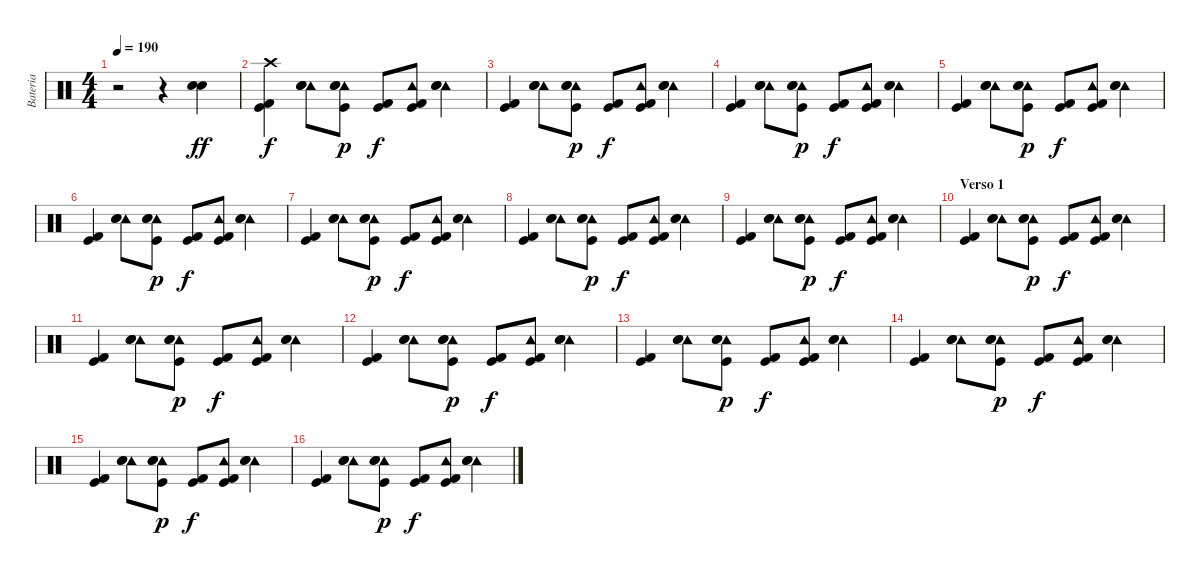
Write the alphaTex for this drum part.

\track ("Bateria" "Bateria") {instrument percussion}
\staff {score}
\articulation defaults
\ts (4 4)
\tempo 190
\clef neutral
\ks c
r.2{dy ff} r.4 ("Snare (hit) 2" "Electric Snare (hit)").4 |
("Crash high (hit)" "Kick (hit) 2" "Kick (hit)").4{dy f} ("Tambourine (hit)" "Snare (hit) 2" "Electric Snare (hit)").8 ("Tambourine (hit)" "Snare (hit) 2" "Electric Snare (hit)" "Kick (hit)").8{dy p} ("Kick (hit) 2" "Kick (hit)").8{dy f} ("Tambourine (hit)" "Kick (hit) 2" "Kick (hit)").8 ("Tambourine (hit)" "Snare (hit) 2" "Electric Snare (hit)").4 |
("Kick (hit) 2" "Kick (hit)").4 ("Tambourine (hit)" "Snare (hit) 2" "Electric Snare (hit)").8 ("Tambourine (hit)" "Snare (hit) 2" "Electric Snare (hit)" "Kick (hit)").8{dy p} ("Kick (hit) 2" "Kick (hit)").8{dy f} ("Tambourine (hit)" "Kick (hit) 2" "Kick (hit)").8 ("Tambourine (hit)" "Snare (hit) 2" "Electric Snare (hit)").4 |
("Kick (hit) 2" "Kick (hit)").4 ("Tambourine (hit)" "Snare (hit) 2" "Electric Snare (hit)").8 ("Tambourine (hit)" "Snare (hit) 2" "Electric Snare (hit)" "Kick (hit)").8{dy p} ("Kick (hit) 2" "Kick (hit)").8{dy f} ("Tambourine (hit)" "Kick (hit) 2" "Kick (hit)").8 ("Tambourine (hit)" "Snare (hit) 2" "Electric Snare (hit)").4 |
("Kick (hit) 2" "Kick (hit)").4 ("Tambourine (hit)" "Snare (hit) 2" "Electric Snare (hit)").8 ("Tambourine (hit)" "Snare (hit) 2" "Electric Snare (hit)" "Kick (hit)").8{dy p} ("Kick (hit) 2" "Kick (hit)").8{dy f} ("Tambourine (hit)" "Kick (hit) 2" "Kick (hit)").8 ("Tambourine (hit)" "Snare (hit) 2" "Electric Snare (hit)").4 |
("Kick (hit) 2" "Kick (hit)").4 ("Tambourine (hit)" "Snare (hit) 2" "Electric Snare (hit)").8 ("Tambourine (hit)" "Snare (hit) 2" "Electric Snare (hit)" "Kick (hit)").8{dy p} ("Kick (hit) 2" "Kick (hit)").8{dy f} ("Tambourine (hit)" "Kick (hit) 2" "Kick (hit)").8 ("Tambourine (hit)" "Snare (hit) 2" "Electric Snare (hit)").4 |
("Kick (hit) 2" "Kick (hit)").4 ("Tambourine (hit)" "Snare (hit) 2" "Electric Snare (hit)").8 ("Tambourine (hit)" "Snare (hit) 2" "Electric Snare (hit)" "Kick (hit)").8{dy p} ("Kick (hit) 2" "Kick (hit)").8{dy f} ("Tambourine (hit)" "Kick (hit) 2" "Kick (hit)").8 ("Tambourine (hit)" "Snare (hit) 2" "Electric Snare (hit)").4 |
("Kick (hit) 2" "Kick (hit)").4 ("Tambourine (hit)" "Snare (hit) 2" "Electric Snare (hit)").8 ("Tambourine (hit)" "Snare (hit) 2" "Electric Snare (hit)" "Kick (hit)").8{dy p} ("Kick (hit) 2" "Kick (hit)").8{dy f} ("Tambourine (hit)" "Kick (hit) 2" "Kick (hit)").8 ("Tambourine (hit)" "Snare (hit) 2" "Electric Snare (hit)").4 |
("Kick (hit) 2" "Kick (hit)").4 ("Tambourine (hit)" "Snare (hit) 2" "Electric Snare (hit)").8 ("Tambourine (hit)" "Snare (hit) 2" "Electric Snare (hit)" "Kick (hit)").8{dy p} ("Kick (hit) 2" "Kick (hit)").8{dy f} ("Tambourine (hit)" "Kick (hit) 2" "Kick (hit)").8 ("Tambourine (hit)" "Snare (hit) 2" "Electric Snare (hit)").4 |
\section ("" "Verso 1")
("Kick (hit) 2" "Kick (hit)").4 ("Tambourine (hit)" "Snare (hit) 2" "Electric Snare (hit)").8 ("Tambourine (hit)" "Snare (hit) 2" "Electric Snare (hit)" "Kick (hit)").8{dy p} ("Kick (hit) 2" "Kick (hit)").8{dy f} ("Tambourine (hit)" "Kick (hit) 2" "Kick (hit)").8 ("Tambourine (hit)" "Snare (hit) 2" "Electric Snare (hit)").4 |
("Kick (hit) 2" "Kick (hit)").4 ("Tambourine (hit)" "Snare (hit) 2" "Electric Snare (hit)").8 ("Tambourine (hit)" "Snare (hit) 2" "Electric Snare (hit)" "Kick (hit)").8{dy p} ("Kick (hit) 2" "Kick (hit)").8{dy f} ("Tambourine (hit)" "Kick (hit) 2" "Kick (hit)").8 ("Tambourine (hit)" "Snare (hit) 2" "Electric Snare (hit)").4 |
("Kick (hit) 2" "Kick (hit)").4 ("Tambourine (hit)" "Snare (hit) 2" "Electric Snare (hit)").8 ("Tambourine (hit)" "Snare (hit) 2" "Electric Snare (hit)" "Kick (hit)").8{dy p} ("Kick (hit) 2" "Kick (hit)").8{dy f} ("Tambourine (hit)" "Kick (hit) 2" "Kick (hit)").8 ("Tambourine (hit)" "Snare (hit) 2" "Electric Snare (hit)").4 |
("Kick (hit) 2" "Kick (hit)").4 ("Tambourine (hit)" "Snare (hit) 2" "Electric Snare (hit)").8 ("Tambourine (hit)" "Snare (hit) 2" "Electric Snare (hit)" "Kick (hit)").8{dy p} ("Kick (hit) 2" "Kick (hit)").8{dy f} ("Tambourine (hit)" "Kick (hit) 2" "Kick (hit)").8 ("Tambourine (hit)" "Snare (hit) 2" "Electric Snare (hit)").4 |
("Kick (hit) 2" "Kick (hit)").4 ("Tambourine (hit)" "Snare (hit) 2" "Electric Snare (hit)").8 ("Tambourine (hit)" "Snare (hit) 2" "Electric Snare (hit)" "Kick (hit)").8{dy p} ("Kick (hit) 2" "Kick (hit)").8{dy f} ("Tambourine (hit)" "Kick (hit) 2" "Kick (hit)").8 ("Tambourine (hit)" "Snare (hit) 2" "Electric Snare (hit)").4 |
("Kick (hit) 2" "Kick (hit)").4 ("Tambourine (hit)" "Snare (hit) 2" "Electric Snare (hit)").8 ("Tambourine (hit)" "Snare (hit) 2" "Electric Snare (hit)" "Kick (hit)").8{dy p} ("Kick (hit) 2" "Kick (hit)").8{dy f} ("Tambourine (hit)" "Kick (hit) 2" "Kick (hit)").8 ("Tambourine (hit)" "Snare (hit) 2" "Electric Snare (hit)").4 |
("Kick (hit) 2" "Kick (hit)").4 ("Tambourine (hit)" "Snare (hit) 2" "Electric Snare (hit)").8 ("Tambourine (hit)" "Snare (hit) 2" "Electric Snare (hit)" "Kick (hit)").8{dy p} ("Kick (hit) 2" "Kick (hit)").8{dy f} ("Tambourine (hit)" "Kick (hit) 2" "Kick (hit)").8 ("Tambourine (hit)" "Snare (hit) 2" "Electric Snare (hit)").4
